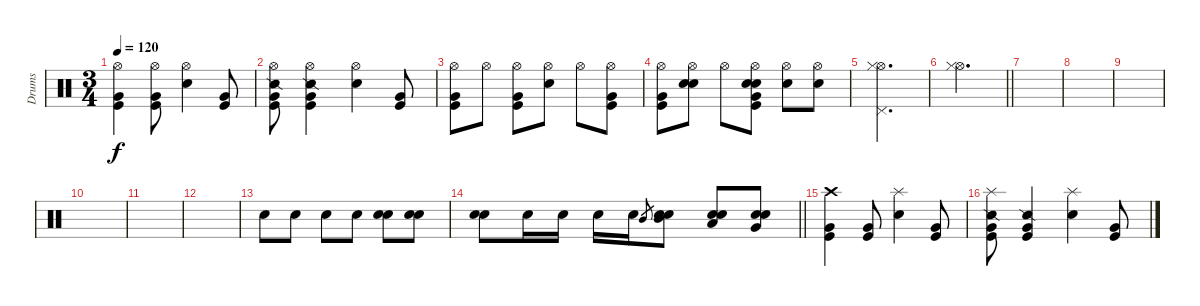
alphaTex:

\track ("Drums" "Drums") {instrument percussion}
\staff {score}
\articulation defaults
\ts (3 4)
\tempo 120
\clef neutral
\ks c
("Hi-Hat (open)" "Very Low Tom (hit)" "Kick (hit)").4{dy f} ("Hi-Hat (open)" "Very Low Tom (hit)" "Kick (hit)").8 ("Hi-Hat (open)" "Electric Snare (hit)").4 ("Very Low Tom (hit)" "Kick (hit)").8 |
("Hi-Hat (open)" "Snare (side stick) 2" "Very Low Tom (hit)" "Kick (hit)").8 ("Hi-Hat (open)" "Snare (side stick) 2" "Very Low Tom (hit)" "Kick (hit)").4 ("Hi-Hat (open)" "Electric Snare (hit)").4 ("Very Low Tom (hit)" "Kick (hit)").8 |
("Hi-Hat (open)" "Very Low Tom (hit)" "Kick (hit)").8 "Hi-Hat (open)".8 ("Hi-Hat (open)" "Very Low Tom (hit)" "Kick (hit)").8 ("Hi-Hat (open)" "Electric Snare (hit)").8 "Hi-Hat (open)".8 ("Hi-Hat (open)" "Very Low Tom (hit)" "Kick (hit)").8 |
("Hi-Hat (open)" "Very Low Tom (hit)" "Kick (hit)").8 ("Hi-Hat (open)" "Electric Snare (hit)" "Snare (hit) 2").8 "Hi-Hat (open)".8 ("Hi-Hat (open)" "Electric Snare (hit)" "Snare (hit) 2" "Kick (hit)" "Very Low Tom (hit)").8 ("Hi-Hat (open)" "Electric Snare (hit)").8 ("Hi-Hat (open)" "Electric Snare (hit)").8 |
("Hi-Hat (open)" "Hi-Hat (closed)" "Pedal Hi-Hat (hit)").2{d bd 120} |
\barLineRight lightlight
("Hi-Hat (open)" "Hi-Hat (closed)").2{d bd 240} |
|
|
|
|
|
|
"Electric Snare (hit)".8 "Electric Snare (hit)".8 "Electric Snare (hit)".8 "Electric Snare (hit)".8 ("Snare (hit) 2" "Electric Snare (hit)").8 ("Snare (hit) 2" "Electric Snare (hit)").8 |
\barLineRight lightlight
("Snare (hit) 2" "Electric Snare (hit)").8 "Snare (hit) 2".16 "Snare (hit) 2".16 "Snare (hit) 2".16 "Snare (hit) 2".16 "Mid Tom (hit)"{h}.8{gr} ("Mid Tom (hit)" "Snare (hit) 2" "Electric Snare (hit)").8 ("Low Tom (hit)" "Snare (hit) 2" "Electric Snare (hit)").8 ("Very Low Tom (hit)" "Snare (hit) 2" "Electric Snare (hit)").8 |
("Crash high (hit)" "Very Low Tom (hit)" "Kick (hit)").4 ("Very Low Tom (hit)" "Kick (hit)").8 ("Splash (hit)" "Electric Snare (hit)").4 ("Very Low Tom (hit)" "Kick (hit)").8 |
("Splash (hit)" "Snare (side stick) 2" "Very Low Tom (hit)" "Kick (hit)").8 ("Snare (side stick) 2" "Very Low Tom (hit)" "Kick (hit)").4 ("Splash (hit)" "Electric Snare (hit)").4 ("Very Low Tom (hit)" "Kick (hit)").8
